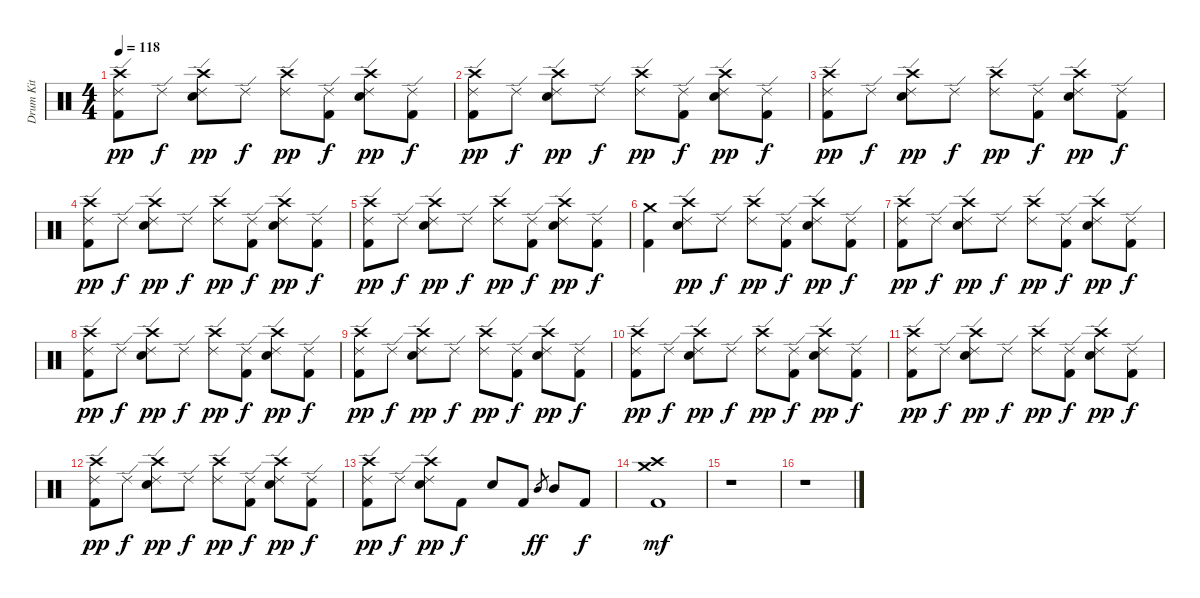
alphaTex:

\track ("Drum Kit" "Drum Kit") {instrument percussion}
\staff {score}
\articulation defaults
\ts (4 4)
\tempo 118
\clef neutral
\ks c
("Crash high (hit)" "Ride (edge) 2" "Kick (hit) 2").8{dy pp} "Ride (edge) 2".8{dy f} ("Crash high (hit)" "Ride (edge) 2" "Electric Snare (hit)").8{dy pp} "Ride (edge) 2".8{dy f} ("Crash high (hit)" "Ride (edge) 2").8{dy pp} ("Ride (edge) 2" "Kick (hit) 2").8{dy f} ("Crash high (hit)" "Ride (edge) 2" "Electric Snare (hit)").8{dy pp} ("Ride (edge) 2" "Kick (hit) 2").8{dy f} |
("Crash high (hit)" "Ride (edge) 2" "Kick (hit) 2").8{dy pp} "Ride (edge) 2".8{dy f} ("Crash high (hit)" "Ride (edge) 2" "Electric Snare (hit)").8{dy pp} "Ride (edge) 2".8{dy f} ("Crash high (hit)" "Ride (edge) 2").8{dy pp} ("Ride (edge) 2" "Kick (hit) 2").8{dy f} ("Crash high (hit)" "Ride (edge) 2" "Electric Snare (hit)").8{dy pp} ("Ride (edge) 2" "Kick (hit) 2").8{dy f} |
("Crash high (hit)" "Ride (edge) 2" "Kick (hit) 2").8{dy pp} "Ride (edge) 2".8{dy f} ("Crash high (hit)" "Ride (edge) 2" "Electric Snare (hit)").8{dy pp} "Ride (edge) 2".8{dy f} ("Crash high (hit)" "Ride (edge) 2").8{dy pp} ("Ride (edge) 2" "Kick (hit) 2").8{dy f} ("Crash high (hit)" "Ride (edge) 2" "Electric Snare (hit)").8{dy pp} ("Ride (edge) 2" "Kick (hit) 2").8{dy f} |
("Crash high (hit)" "Ride (edge) 2" "Kick (hit) 2").8{dy pp} "Ride (edge) 2".8{dy f} ("Crash high (hit)" "Ride (edge) 2" "Electric Snare (hit)").8{dy pp} "Ride (edge) 2".8{dy f} ("Crash high (hit)" "Ride (edge) 2").8{dy pp} ("Ride (edge) 2" "Kick (hit) 2").8{dy f} ("Crash high (hit)" "Ride (edge) 2" "Electric Snare (hit)").8{dy pp} ("Ride (edge) 2" "Kick (hit) 2").8{dy f} |
("Crash high (hit)" "Ride (edge) 2" "Kick (hit) 2").8{dy pp} "Ride (edge) 2".8{dy f} ("Crash high (hit)" "Ride (edge) 2" "Electric Snare (hit)").8{dy pp} "Ride (edge) 2".8{dy f} ("Crash high (hit)" "Ride (edge) 2").8{dy pp} ("Ride (edge) 2" "Kick (hit) 2").8{dy f} ("Crash high (hit)" "Ride (edge) 2" "Electric Snare (hit)").8{dy pp} ("Ride (edge) 2" "Kick (hit) 2").8{dy f} |
("Crash medium (hit)" "Kick (hit) 2").4 ("Crash high (hit)" "Ride (edge) 2" "Electric Snare (hit)").8{dy pp} "Ride (edge) 2".8{dy f} ("Crash high (hit)" "Ride (edge) 2").8{dy pp} ("Ride (edge) 2" "Kick (hit) 2").8{dy f} ("Crash high (hit)" "Ride (edge) 2" "Electric Snare (hit)").8{dy pp} ("Ride (edge) 2" "Kick (hit) 2").8{dy f} |
("Crash high (hit)" "Ride (edge) 2" "Kick (hit) 2").8{dy pp} "Ride (edge) 2".8{dy f} ("Crash high (hit)" "Ride (edge) 2" "Electric Snare (hit)").8{dy pp} "Ride (edge) 2".8{dy f} ("Crash high (hit)" "Ride (edge) 2").8{dy pp} ("Ride (edge) 2" "Kick (hit) 2").8{dy f} ("Crash high (hit)" "Ride (edge) 2" "Electric Snare (hit)").8{dy pp} ("Ride (edge) 2" "Kick (hit) 2").8{dy f} |
("Crash high (hit)" "Ride (edge) 2" "Kick (hit) 2").8{dy pp} "Ride (edge) 2".8{dy f} ("Crash high (hit)" "Ride (edge) 2" "Electric Snare (hit)").8{dy pp} "Ride (edge) 2".8{dy f} ("Crash high (hit)" "Ride (edge) 2").8{dy pp} ("Ride (edge) 2" "Kick (hit) 2").8{dy f} ("Crash high (hit)" "Ride (edge) 2" "Electric Snare (hit)").8{dy pp} ("Ride (edge) 2" "Kick (hit) 2").8{dy f} |
("Crash high (hit)" "Ride (edge) 2" "Kick (hit) 2").8{dy pp} "Ride (edge) 2".8{dy f} ("Crash high (hit)" "Ride (edge) 2" "Electric Snare (hit)").8{dy pp} "Ride (edge) 2".8{dy f} ("Crash high (hit)" "Ride (edge) 2").8{dy pp} ("Ride (edge) 2" "Kick (hit) 2").8{dy f} ("Crash high (hit)" "Ride (edge) 2" "Electric Snare (hit)").8{dy pp} ("Ride (edge) 2" "Kick (hit) 2").8{dy f} |
("Crash high (hit)" "Ride (edge) 2" "Kick (hit) 2").8{dy pp} "Ride (edge) 2".8{dy f} ("Crash high (hit)" "Ride (edge) 2" "Electric Snare (hit)").8{dy pp} "Ride (edge) 2".8{dy f} ("Crash high (hit)" "Ride (edge) 2").8{dy pp} ("Ride (edge) 2" "Kick (hit) 2").8{dy f} ("Crash high (hit)" "Ride (edge) 2" "Electric Snare (hit)").8{dy pp} ("Ride (edge) 2" "Kick (hit) 2").8{dy f} |
("Crash high (hit)" "Ride (edge) 2" "Kick (hit) 2").8{dy pp} "Ride (edge) 2".8{dy f} ("Crash high (hit)" "Ride (edge) 2" "Electric Snare (hit)").8{dy pp} "Ride (edge) 2".8{dy f} ("Crash high (hit)" "Ride (edge) 2").8{dy pp} ("Ride (edge) 2" "Kick (hit) 2").8{dy f} ("Crash high (hit)" "Ride (edge) 2" "Electric Snare (hit)").8{dy pp} ("Ride (edge) 2" "Kick (hit) 2").8{dy f} |
("Crash high (hit)" "Ride (edge) 2" "Kick (hit) 2").8{dy pp} "Ride (edge) 2".8{dy f} ("Crash high (hit)" "Ride (edge) 2" "Electric Snare (hit)").8{dy pp} "Ride (edge) 2".8{dy f} ("Crash high (hit)" "Ride (edge) 2").8{dy pp} ("Ride (edge) 2" "Kick (hit) 2").8{dy f} ("Crash high (hit)" "Ride (edge) 2" "Electric Snare (hit)").8{dy pp} ("Ride (edge) 2" "Kick (hit) 2").8{dy f} |
("Crash high (hit)" "Ride (edge) 2" "Kick (hit) 2").8{dy pp} "Ride (edge) 2".8{dy f} ("Crash high (hit)" "Ride (edge) 2" "Electric Snare (hit)").8{dy pp} "Kick (hit) 2".8{dy f} "Electric Snare (hit)".8 "Kick (hit) 2".8 "Mid Tom (hit)".8{gr dy ff} "Mid Tom (hit)".8 "Kick (hit) 2".8{dy f} |
("Crash medium (hit)" "Crash high (hit)" "Kick (hit) 2").1{dy mf} |
r.1 |
r.1
